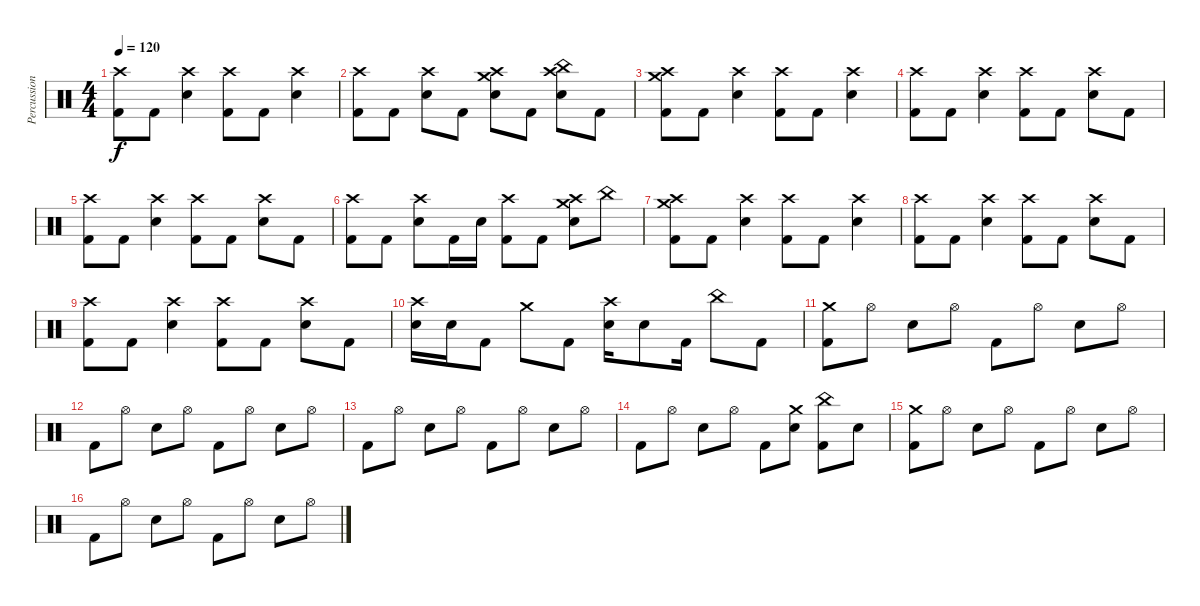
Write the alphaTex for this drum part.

\track ("Percussion" "Percussion") {instrument percussion}
\staff {score}
\articulation defaults
\ts (4 4)
\tempo 120
\clef neutral
\ks c
("Crash high (hit)" "Kick (hit) 2").8{dy f} "Kick (hit) 2".8 ("Crash high (hit)" "Snare (hit) 2").4 ("Crash high (hit)" "Kick (hit) 2").8 "Kick (hit) 2".8 ("Crash high (hit)" "Snare (hit) 2").4 |
("Crash high (hit)" "Kick (hit) 2").8 "Kick (hit) 2".8 ("Crash high (hit)" "Snare (hit) 2").8 "Kick (hit) 2".8 ("Crash medium (hit)" "Crash high (hit)" "Snare (hit) 2").8 "Kick (hit) 2".8 ("China (hit)" "Crash high (hit)" "Snare (hit) 2").8 "Kick (hit) 2".8 |
("Crash medium (hit)" "Crash high (hit)" "Kick (hit) 2").8 "Kick (hit) 2".8 ("Crash high (hit)" "Snare (hit) 2").4 ("Crash high (hit)" "Kick (hit) 2").8 "Kick (hit) 2".8 ("Crash high (hit)" "Snare (hit) 2").4 |
("Crash high (hit)" "Kick (hit) 2").8 "Kick (hit) 2".8 ("Crash high (hit)" "Snare (hit) 2").4 ("Crash high (hit)" "Kick (hit) 2").8 "Kick (hit) 2".8 ("Crash high (hit)" "Snare (hit) 2").8 "Kick (hit) 2".8 |
("Crash high (hit)" "Kick (hit) 2").8 "Kick (hit) 2".8 ("Crash high (hit)" "Snare (hit) 2").4 ("Crash high (hit)" "Kick (hit) 2").8 "Kick (hit) 2".8 ("Crash high (hit)" "Snare (hit) 2").8 "Kick (hit) 2".8 |
("Crash high (hit)" "Kick (hit) 2").8 "Kick (hit) 2".8 ("Crash high (hit)" "Snare (hit) 2").8 "Kick (hit) 2".16 "Snare (hit) 2".16 ("Crash high (hit)" "Kick (hit) 2").8 "Kick (hit) 2".8 ("Crash medium (hit)" "Crash high (hit)" "Snare (hit) 2").8 "China (hit)".8 |
("Crash medium (hit)" "Crash high (hit)" "Kick (hit) 2").8 "Kick (hit) 2".8 ("Crash high (hit)" "Snare (hit) 2").4 ("Crash high (hit)" "Kick (hit) 2").8 "Kick (hit) 2".8 ("Crash high (hit)" "Snare (hit) 2").4 |
("Crash high (hit)" "Kick (hit) 2").8 "Kick (hit) 2".8 ("Crash high (hit)" "Snare (hit) 2").4 ("Crash high (hit)" "Kick (hit) 2").8 "Kick (hit) 2".8 ("Crash high (hit)" "Snare (hit) 2").8 "Kick (hit) 2".8 |
("Crash high (hit)" "Kick (hit) 2").8 "Kick (hit) 2".8 ("Crash high (hit)" "Snare (hit) 2").4 ("Crash high (hit)" "Kick (hit) 2").8 "Kick (hit) 2".8 ("Crash high (hit)" "Snare (hit) 2").8 "Kick (hit) 2".8 |
("Crash high (hit)" "Snare (hit) 2").16 "Snare (hit) 2".16 "Kick (hit) 2".8 "Crash medium (hit)".8 "Kick (hit) 2".8 ("Crash high (hit)" "Snare (hit) 2").16 "Snare (hit) 2".8 "Kick (hit) 2".16 "China (hit)".8 "Kick (hit) 2".8 |
("Crash medium (hit)" "Kick (hit) 2").8 "Hi-Hat (open)".8 "Snare (hit) 2".8 "Hi-Hat (open)".8 "Kick (hit) 2".8 "Hi-Hat (open)".8 "Snare (hit) 2".8 "Hi-Hat (open)".8 |
"Kick (hit) 2".8 "Hi-Hat (open)".8 "Snare (hit) 2".8 "Hi-Hat (open)".8 "Kick (hit) 2".8 "Hi-Hat (open)".8 "Snare (hit) 2".8 "Hi-Hat (open)".8 |
"Kick (hit) 2".8 "Hi-Hat (open)".8 "Snare (hit) 2".8 "Hi-Hat (open)".8 "Kick (hit) 2".8 "Hi-Hat (open)".8 "Snare (hit) 2".8 "Hi-Hat (open)".8 |
"Kick (hit) 2".8 "Hi-Hat (open)".8 "Snare (hit) 2".8 "Hi-Hat (open)".8 "Kick (hit) 2".8 ("Crash medium (hit)" "Snare (hit) 2").8 ("China (hit)" "Kick (hit) 2").8 "Snare (hit) 2".8 |
("Crash medium (hit)" "Kick (hit) 2").8 "Hi-Hat (open)".8 "Snare (hit) 2".8 "Hi-Hat (open)".8 "Kick (hit) 2".8 "Hi-Hat (open)".8 "Snare (hit) 2".8 "Hi-Hat (open)".8 |
"Kick (hit) 2".8 "Hi-Hat (open)".8 "Snare (hit) 2".8 "Hi-Hat (open)".8 "Kick (hit) 2".8 "Hi-Hat (open)".8 "Snare (hit) 2".8 "Hi-Hat (open)".8
